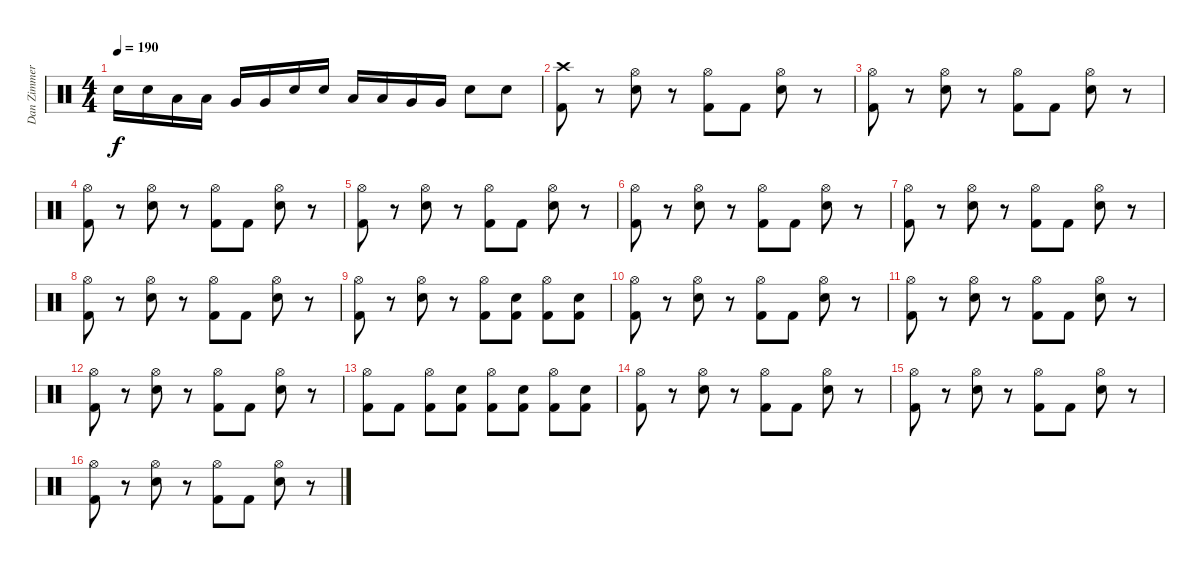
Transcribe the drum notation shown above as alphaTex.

\track ("Dan Zimmermann" "Dan Zimmer") {instrument percussion}
\staff {score}
\articulation defaults
\ts (4 4)
\tempo 190
\clef neutral
\ks c "Electric Snare (hit)".16{dy f} "Electric Snare (hit)".16 "Low Tom (hit)".16 "Low Tom (hit)".16 "Very Low Tom (hit)".16 "Very Low Tom (hit)".16 "Electric Snare (hit)".16 "Electric Snare (hit)".16 "Low Tom (hit)".16 "Low Tom (hit)".16 "Very Low Tom (hit)".16 "Very Low Tom (hit)".16 "Electric Snare (hit)".8 "Electric Snare (hit)".8
|
("Crash high (hit)" "Kick (hit) 2").8 r.8 ("Hi-Hat (open)" "Electric Snare (hit)").8 r.8 ("Hi-Hat (open)" "Kick (hit) 2").8 "Kick (hit) 2".8 ("Hi-Hat (open)" "Electric Snare (hit)").8 r.8 |
("Hi-Hat (open)" "Kick (hit) 2").8 r.8 ("Hi-Hat (open)" "Electric Snare (hit)").8 r.8 ("Hi-Hat (open)" "Kick (hit) 2").8 "Kick (hit) 2".8 ("Hi-Hat (open)" "Electric Snare (hit)").8 r.8 |
("Hi-Hat (open)" "Kick (hit) 2").8 r.8 ("Hi-Hat (open)" "Electric Snare (hit)").8 r.8 ("Hi-Hat (open)" "Kick (hit) 2").8 "Kick (hit) 2".8 ("Hi-Hat (open)" "Electric Snare (hit)").8 r.8 |
("Hi-Hat (open)" "Kick (hit) 2").8 r.8 ("Hi-Hat (open)" "Electric Snare (hit)").8 r.8 ("Hi-Hat (open)" "Kick (hit) 2").8 "Kick (hit) 2".8 ("Hi-Hat (open)" "Electric Snare (hit)").8 r.8 |
("Hi-Hat (open)" "Kick (hit) 2").8 r.8 ("Hi-Hat (open)" "Electric Snare (hit)").8 r.8 ("Hi-Hat (open)" "Kick (hit) 2").8 "Kick (hit) 2".8 ("Hi-Hat (open)" "Electric Snare (hit)").8 r.8 |
("Hi-Hat (open)" "Kick (hit) 2").8 r.8 ("Hi-Hat (open)" "Electric Snare (hit)").8 r.8 ("Hi-Hat (open)" "Kick (hit) 2").8 "Kick (hit) 2".8 ("Hi-Hat (open)" "Electric Snare (hit)").8 r.8 |
("Hi-Hat (open)" "Kick (hit) 2").8 r.8 ("Hi-Hat (open)" "Electric Snare (hit)").8 r.8 ("Hi-Hat (open)" "Kick (hit) 2").8 "Kick (hit) 2".8 ("Hi-Hat (open)" "Electric Snare (hit)").8 r.8 |
("Hi-Hat (open)" "Kick (hit) 2").8 r.8 ("Hi-Hat (open)" "Electric Snare (hit)").8 r.8 ("Hi-Hat (open)" "Kick (hit) 2").8 ("Electric Snare (hit)" "Kick (hit) 2").8 ("Hi-Hat (open)" "Kick (hit) 2").8 ("Electric Snare (hit)" "Kick (hit) 2").8 |
("Hi-Hat (open)" "Kick (hit) 2").8 r.8 ("Hi-Hat (open)" "Electric Snare (hit)").8 r.8 ("Hi-Hat (open)" "Kick (hit) 2").8 "Kick (hit) 2".8 ("Hi-Hat (open)" "Electric Snare (hit)").8 r.8 |
("Hi-Hat (open)" "Kick (hit) 2").8 r.8 ("Hi-Hat (open)" "Electric Snare (hit)").8 r.8 ("Hi-Hat (open)" "Kick (hit) 2").8 "Kick (hit) 2".8 ("Hi-Hat (open)" "Electric Snare (hit)").8 r.8 |
("Hi-Hat (open)" "Kick (hit) 2").8 r.8 ("Hi-Hat (open)" "Electric Snare (hit)").8 r.8 ("Hi-Hat (open)" "Kick (hit) 2").8 "Kick (hit) 2".8 ("Hi-Hat (open)" "Electric Snare (hit)").8 r.8 |
("Hi-Hat (open)" "Kick (hit) 2").8 "Kick (hit) 2".8 ("Hi-Hat (open)" "Kick (hit) 2").8 ("Electric Snare (hit)" "Kick (hit) 2").8 ("Hi-Hat (open)" "Kick (hit) 2").8 ("Electric Snare (hit)" "Kick (hit) 2").8 ("Hi-Hat (open)" "Kick (hit) 2").8 ("Electric Snare (hit)" "Kick (hit) 2").8 |
("Hi-Hat (open)" "Kick (hit) 2").8 r.8 ("Hi-Hat (open)" "Electric Snare (hit)").8 r.8 ("Hi-Hat (open)" "Kick (hit) 2").8 "Kick (hit) 2".8 ("Hi-Hat (open)" "Electric Snare (hit)").8 r.8 |
("Hi-Hat (open)" "Kick (hit) 2").8 r.8 ("Hi-Hat (open)" "Electric Snare (hit)").8 r.8 ("Hi-Hat (open)" "Kick (hit) 2").8 "Kick (hit) 2".8 ("Hi-Hat (open)" "Electric Snare (hit)").8 r.8 |
("Hi-Hat (open)" "Kick (hit) 2").8 r.8 ("Hi-Hat (open)" "Electric Snare (hit)").8 r.8 ("Hi-Hat (open)" "Kick (hit) 2").8 "Kick (hit) 2".8 ("Hi-Hat (open)" "Electric Snare (hit)").8 r.8
